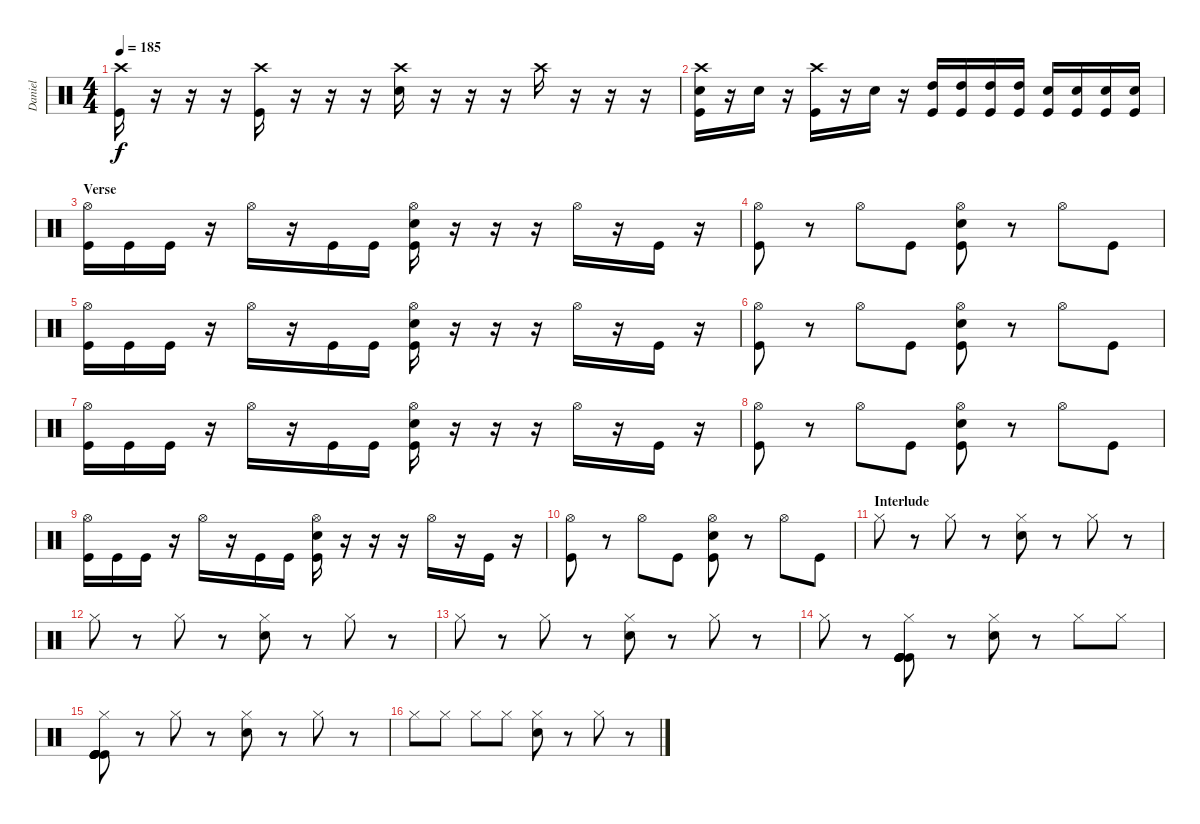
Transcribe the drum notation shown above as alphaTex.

\track ("Daniel" "Daniel") {instrument percussion}
\staff {score}
\articulation defaults
\ts (4 4)
\tempo 185
\clef neutral
\ks c
("Crash high (hit)" "Kick (hit)").16{dy f} r.16 r.16 r.16 ("Crash high (hit)" "Kick (hit)").16 r.16 r.16 r.16 ("Crash high (hit)" "Snare (hit) 2").16 r.16 r.16 r.16 "Crash high (hit)".16 r.16 r.16 r.16 |
("Crash high (hit)" "Snare (hit) 2" "Kick (hit)").16 r.16 "Snare (hit) 2".16 r.16 ("Crash high (hit)" "Kick (hit)").16 r.16 "Snare (hit) 2".16 r.16 ("High Tom (hit)" "Kick (hit)").16 ("High Tom (hit)" "Kick (hit)").16 ("High Tom (hit)" "Kick (hit)").16 ("High Tom (hit)" "Kick (hit)").16 ("Snare (hit) 2" "Kick (hit)").16 ("Snare (hit) 2" "Kick (hit)").16 ("Snare (hit) 2" "Kick (hit)").16 ("Snare (hit) 2" "Kick (hit)").16 |
\section ("" "Verse")
("Hi-Hat (open)" "Kick (hit)").16 "Kick (hit)".16 "Kick (hit)".16 r.16 "Hi-Hat (open)".16 r.16 "Kick (hit)".16 "Kick (hit)".16 ("Hi-Hat (open)" "Snare (hit) 2" "Kick (hit)").16 r.16 r.16 r.16 "Hi-Hat (open)".16 r.16 "Kick (hit)".16 r.16 |
("Hi-Hat (open)" "Kick (hit)").8 r.8 "Hi-Hat (open)".8 "Kick (hit)".8 ("Hi-Hat (open)" "Snare (hit) 2" "Kick (hit)").8 r.8 "Hi-Hat (open)".8 "Kick (hit)".8 |
("Hi-Hat (open)" "Kick (hit)").16 "Kick (hit)".16 "Kick (hit)".16 r.16 "Hi-Hat (open)".16 r.16 "Kick (hit)".16 "Kick (hit)".16 ("Hi-Hat (open)" "Snare (hit) 2" "Kick (hit)").16 r.16 r.16 r.16 "Hi-Hat (open)".16 r.16 "Kick (hit)".16 r.16 |
("Hi-Hat (open)" "Kick (hit)").8 r.8 "Hi-Hat (open)".8 "Kick (hit)".8 ("Hi-Hat (open)" "Snare (hit) 2" "Kick (hit)").8 r.8 "Hi-Hat (open)".8 "Kick (hit)".8 |
("Hi-Hat (open)" "Kick (hit)").16 "Kick (hit)".16 "Kick (hit)".16 r.16 "Hi-Hat (open)".16 r.16 "Kick (hit)".16 "Kick (hit)".16 ("Hi-Hat (open)" "Snare (hit) 2" "Kick (hit)").16 r.16 r.16 r.16 "Hi-Hat (open)".16 r.16 "Kick (hit)".16 r.16 |
("Hi-Hat (open)" "Kick (hit)").8 r.8 "Hi-Hat (open)".8 "Kick (hit)".8 ("Hi-Hat (open)" "Snare (hit) 2" "Kick (hit)").8 r.8 "Hi-Hat (open)".8 "Kick (hit)".8 |
("Hi-Hat (open)" "Kick (hit)").16 "Kick (hit)".16 "Kick (hit)".16 r.16 "Hi-Hat (open)".16 r.16 "Kick (hit)".16 "Kick (hit)".16 ("Hi-Hat (open)" "Snare (hit) 2" "Kick (hit)").16 r.16 r.16 r.16 "Hi-Hat (open)".16 r.16 "Kick (hit)".16 r.16 |
("Hi-Hat (open)" "Kick (hit)").8 r.8 "Hi-Hat (open)".8 "Kick (hit)".8 ("Hi-Hat (open)" "Snare (hit) 2" "Kick (hit)").8 r.8 "Hi-Hat (open)".8 "Kick (hit)".8 |
\section ("" "Interlude")
"Hi-Hat (closed)".8{volume 7} r.8 "Hi-Hat (closed)".8 r.8 ("Hi-Hat (closed)" "Snare (hit) 2").8 r.8 "Hi-Hat (closed)".8 r.8 |
"Hi-Hat (closed)".8 r.8 "Hi-Hat (closed)".8 r.8 ("Hi-Hat (closed)" "Snare (hit) 2").8 r.8 "Hi-Hat (closed)".8 r.8 |
"Hi-Hat (closed)".8 r.8 "Hi-Hat (closed)".8 r.8 ("Hi-Hat (closed)" "Snare (hit) 2").8 r.8 "Hi-Hat (closed)".8 r.8 |
"Hi-Hat (closed)".8 r.8 ("Kick (hit)" "Kick (hit)" "Kick (hit)" "Hi-Hat (closed)" "Kick (hit)" "Kick (hit)").8 r.8 ("Hi-Hat (closed)" "Snare (hit) 2").8 r.8 "Hi-Hat (closed)".8 "Hi-Hat (closed)".8 |
("Kick (hit)" "Kick (hit)" "Kick (hit)" "Hi-Hat (closed)" "Kick (hit)" "Kick (hit)").8 r.8 "Hi-Hat (closed)".8 r.8 ("Hi-Hat (closed)" "Snare (hit) 2").8 r.8 "Hi-Hat (closed)".8 r.8 |
"Hi-Hat (closed)".8 "Hi-Hat (closed)".8 "Hi-Hat (closed)".8 "Hi-Hat (closed)".8 ("Hi-Hat (closed)" "Snare (hit) 2").8 r.8 "Hi-Hat (closed)".8 r.8
